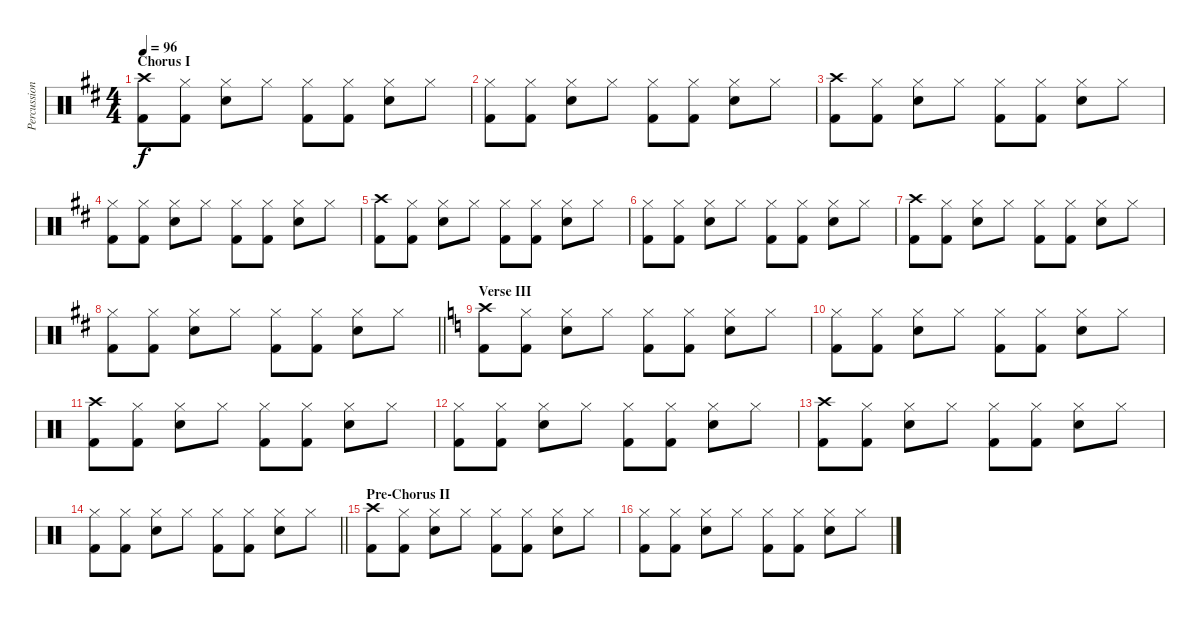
\track ("Percussions" "Percussion") {instrument percussion}
\staff {score}
\articulation defaults
\ts (4 4)
\section ("" "Chorus I")
\tempo 96
\clef neutral
\ks d
("Crash high (hit)" "Kick (hit) 2").8{dy f} ("Hi-Hat (closed)" "Kick (hit) 2").8 ("Hi-Hat (closed)" "Snare (hit) 2").8 "Hi-Hat (closed)".8 ("Hi-Hat (closed)" "Kick (hit) 2").8 ("Hi-Hat (closed)" "Kick (hit) 2").8 ("Hi-Hat (closed)" "Snare (hit) 2").8 "Hi-Hat (closed)".8 |
("Hi-Hat (closed)" "Kick (hit) 2").8 ("Hi-Hat (closed)" "Kick (hit) 2").8 ("Hi-Hat (closed)" "Snare (hit) 2").8 "Hi-Hat (closed)".8 ("Hi-Hat (closed)" "Kick (hit) 2").8 ("Hi-Hat (closed)" "Kick (hit) 2").8 ("Hi-Hat (closed)" "Snare (hit) 2").8 "Hi-Hat (closed)".8 |
("Crash high (hit)" "Kick (hit) 2").8 ("Hi-Hat (closed)" "Kick (hit) 2").8 ("Hi-Hat (closed)" "Snare (hit) 2").8 "Hi-Hat (closed)".8 ("Hi-Hat (closed)" "Kick (hit) 2").8 ("Hi-Hat (closed)" "Kick (hit) 2").8 ("Hi-Hat (closed)" "Snare (hit) 2").8 "Hi-Hat (closed)".8 |
("Hi-Hat (closed)" "Kick (hit) 2").8 ("Hi-Hat (closed)" "Kick (hit) 2").8 ("Hi-Hat (closed)" "Snare (hit) 2").8 "Hi-Hat (closed)".8 ("Hi-Hat (closed)" "Kick (hit) 2").8 ("Hi-Hat (closed)" "Kick (hit) 2").8 ("Hi-Hat (closed)" "Snare (hit) 2").8 "Hi-Hat (closed)".8 |
("Crash high (hit)" "Kick (hit) 2").8 ("Hi-Hat (closed)" "Kick (hit) 2").8 ("Hi-Hat (closed)" "Snare (hit) 2").8 "Hi-Hat (closed)".8 ("Hi-Hat (closed)" "Kick (hit) 2").8 ("Hi-Hat (closed)" "Kick (hit) 2").8 ("Hi-Hat (closed)" "Snare (hit) 2").8 "Hi-Hat (closed)".8 |
("Hi-Hat (closed)" "Kick (hit) 2").8 ("Hi-Hat (closed)" "Kick (hit) 2").8 ("Hi-Hat (closed)" "Snare (hit) 2").8 "Hi-Hat (closed)".8 ("Hi-Hat (closed)" "Kick (hit) 2").8 ("Hi-Hat (closed)" "Kick (hit) 2").8 ("Hi-Hat (closed)" "Snare (hit) 2").8 "Hi-Hat (closed)".8 |
("Crash high (hit)" "Kick (hit) 2").8 ("Hi-Hat (closed)" "Kick (hit) 2").8 ("Hi-Hat (closed)" "Snare (hit) 2").8 "Hi-Hat (closed)".8 ("Hi-Hat (closed)" "Kick (hit) 2").8 ("Hi-Hat (closed)" "Kick (hit) 2").8 ("Hi-Hat (closed)" "Snare (hit) 2").8 "Hi-Hat (closed)".8 |
\barLineRight lightlight
("Hi-Hat (closed)" "Kick (hit) 2").8 ("Hi-Hat (closed)" "Kick (hit) 2").8 ("Hi-Hat (closed)" "Snare (hit) 2").8 "Hi-Hat (closed)".8 ("Hi-Hat (closed)" "Kick (hit) 2").8 ("Hi-Hat (closed)" "Kick (hit) 2").8 ("Hi-Hat (closed)" "Snare (hit) 2").8 "Hi-Hat (closed)".8 |
\section ("" "Verse III")
\ks c
("Crash high (hit)" "Kick (hit) 2").8 ("Hi-Hat (closed)" "Kick (hit) 2").8 ("Hi-Hat (closed)" "Snare (hit) 2").8 "Hi-Hat (closed)".8 ("Hi-Hat (closed)" "Kick (hit) 2").8 ("Hi-Hat (closed)" "Kick (hit) 2").8 ("Hi-Hat (closed)" "Snare (hit) 2").8 "Hi-Hat (closed)".8 |
("Hi-Hat (closed)" "Kick (hit) 2").8 ("Hi-Hat (closed)" "Kick (hit) 2").8 ("Hi-Hat (closed)" "Snare (hit) 2").8 "Hi-Hat (closed)".8 ("Hi-Hat (closed)" "Kick (hit) 2").8 ("Hi-Hat (closed)" "Kick (hit) 2").8 ("Hi-Hat (closed)" "Snare (hit) 2").8 "Hi-Hat (closed)".8 |
("Crash high (hit)" "Kick (hit) 2").8 ("Hi-Hat (closed)" "Kick (hit) 2").8 ("Hi-Hat (closed)" "Snare (hit) 2").8 "Hi-Hat (closed)".8 ("Hi-Hat (closed)" "Kick (hit) 2").8 ("Hi-Hat (closed)" "Kick (hit) 2").8 ("Hi-Hat (closed)" "Snare (hit) 2").8 "Hi-Hat (closed)".8 |
("Hi-Hat (closed)" "Kick (hit) 2").8 ("Hi-Hat (closed)" "Kick (hit) 2").8 ("Hi-Hat (closed)" "Snare (hit) 2").8 "Hi-Hat (closed)".8 ("Hi-Hat (closed)" "Kick (hit) 2").8 ("Hi-Hat (closed)" "Kick (hit) 2").8 ("Hi-Hat (closed)" "Snare (hit) 2").8 "Hi-Hat (closed)".8 |
("Crash high (hit)" "Kick (hit) 2").8 ("Hi-Hat (closed)" "Kick (hit) 2").8 ("Hi-Hat (closed)" "Snare (hit) 2").8 "Hi-Hat (closed)".8 ("Hi-Hat (closed)" "Kick (hit) 2").8 ("Hi-Hat (closed)" "Kick (hit) 2").8 ("Hi-Hat (closed)" "Snare (hit) 2").8 "Hi-Hat (closed)".8 |
\barLineRight lightlight
("Hi-Hat (closed)" "Kick (hit) 2").8 ("Hi-Hat (closed)" "Kick (hit) 2").8 ("Hi-Hat (closed)" "Snare (hit) 2").8 "Hi-Hat (closed)".8 ("Hi-Hat (closed)" "Kick (hit) 2").8 ("Hi-Hat (closed)" "Kick (hit) 2").8 ("Hi-Hat (closed)" "Snare (hit) 2").8 "Hi-Hat (closed)".8 |
\section ("" "Pre-Chorus II")
("Crash high (hit)" "Kick (hit) 2").8 ("Hi-Hat (closed)" "Kick (hit) 2").8 ("Hi-Hat (closed)" "Snare (hit) 2").8 "Hi-Hat (closed)".8 ("Hi-Hat (closed)" "Kick (hit) 2").8 ("Hi-Hat (closed)" "Kick (hit) 2").8 ("Hi-Hat (closed)" "Snare (hit) 2").8 "Hi-Hat (closed)".8 |
("Hi-Hat (closed)" "Kick (hit) 2").8 ("Hi-Hat (closed)" "Kick (hit) 2").8 ("Hi-Hat (closed)" "Snare (hit) 2").8 "Hi-Hat (closed)".8 ("Hi-Hat (closed)" "Kick (hit) 2").8 ("Hi-Hat (closed)" "Kick (hit) 2").8 ("Hi-Hat (closed)" "Snare (hit) 2").8 "Hi-Hat (closed)".8
